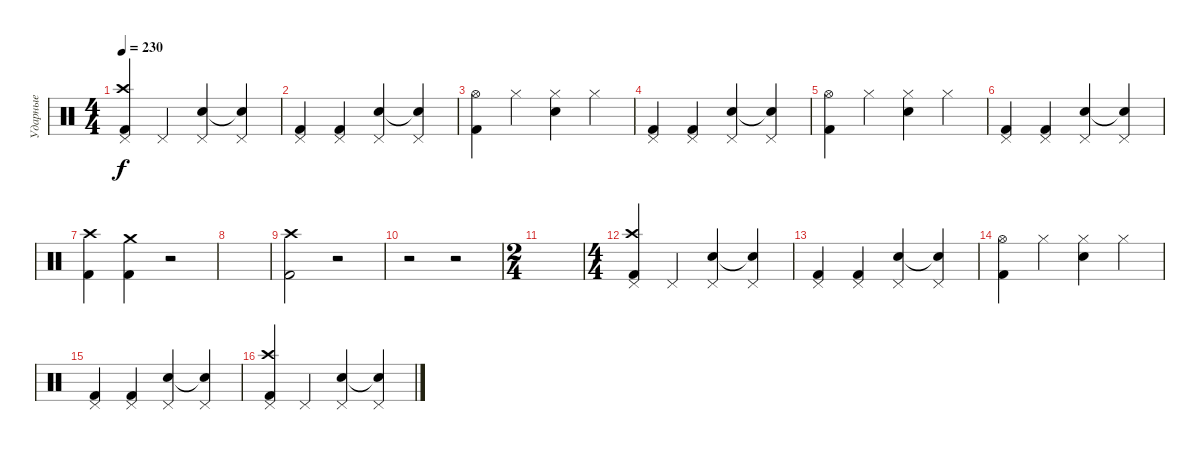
\track ("Ударные" "Ударные") {instrument percussion}
\staff {score}
\articulation defaults
\ts (4 4)
\tempo 230
\clef neutral
\ks c
("Pedal Hi-Hat (hit)" "Crash high (hit)" "Kick (hit) 2").4{dy f} "Pedal Hi-Hat (hit)".4 ("Pedal Hi-Hat (hit)" "Electric Snare (hit)").4 ("Pedal Hi-Hat (hit)" "Electric Snare (hit)"{t}).4 |
("Pedal Hi-Hat (hit)" "Kick (hit) 2").4 ("Pedal Hi-Hat (hit)" "Kick (hit) 2").4 ("Pedal Hi-Hat (hit)" "Electric Snare (hit)").4 ("Pedal Hi-Hat (hit)" "Electric Snare (hit)"{t}).4 |
("Hi-Hat (open)" "Kick (hit) 2").4 "Hi-Hat (closed)".4 ("Hi-Hat (closed)" "Electric Snare (hit)").4 "Hi-Hat (closed)".4 |
("Pedal Hi-Hat (hit)" "Kick (hit) 2").4 ("Pedal Hi-Hat (hit)" "Kick (hit) 2").4 ("Pedal Hi-Hat (hit)" "Electric Snare (hit)").4 ("Pedal Hi-Hat (hit)" "Electric Snare (hit)"{t}).4 |
("Hi-Hat (open)" "Kick (hit) 2").4 "Hi-Hat (closed)".4 ("Hi-Hat (closed)" "Electric Snare (hit)").4 "Hi-Hat (closed)".4 |
("Pedal Hi-Hat (hit)" "Kick (hit) 2").4 ("Pedal Hi-Hat (hit)" "Kick (hit) 2").4 ("Pedal Hi-Hat (hit)" "Electric Snare (hit)").4 ("Pedal Hi-Hat (hit)" "Electric Snare (hit)"{t}).4 |
("Crash high (hit)" "Kick (hit) 2").4 ("Crash medium (hit)" "Kick (hit) 2").4 r.2 |
|
("Crash high (hit)" "Kick (hit) 2").2 r.2 |
r.2 r.2 |
\ts (2 4)
|
\ts (4 4)
("Pedal Hi-Hat (hit)" "Crash high (hit)" "Kick (hit) 2").4 "Pedal Hi-Hat (hit)".4 ("Pedal Hi-Hat (hit)" "Electric Snare (hit)").4 ("Pedal Hi-Hat (hit)" "Electric Snare (hit)"{t}).4 |
("Pedal Hi-Hat (hit)" "Kick (hit) 2").4 ("Pedal Hi-Hat (hit)" "Kick (hit) 2").4 ("Pedal Hi-Hat (hit)" "Electric Snare (hit)").4 ("Pedal Hi-Hat (hit)" "Electric Snare (hit)"{t}).4 |
("Hi-Hat (open)" "Kick (hit) 2").4 "Hi-Hat (closed)".4 ("Hi-Hat (closed)" "Electric Snare (hit)").4 "Hi-Hat (closed)".4 |
("Pedal Hi-Hat (hit)" "Kick (hit) 2").4 ("Pedal Hi-Hat (hit)" "Kick (hit) 2").4 ("Pedal Hi-Hat (hit)" "Electric Snare (hit)").4 ("Pedal Hi-Hat (hit)" "Electric Snare (hit)"{t}).4 |
("Pedal Hi-Hat (hit)" "Crash high (hit)" "Kick (hit) 2").4 "Pedal Hi-Hat (hit)".4 ("Pedal Hi-Hat (hit)" "Electric Snare (hit)").4 ("Pedal Hi-Hat (hit)" "Electric Snare (hit)"{t}).4
